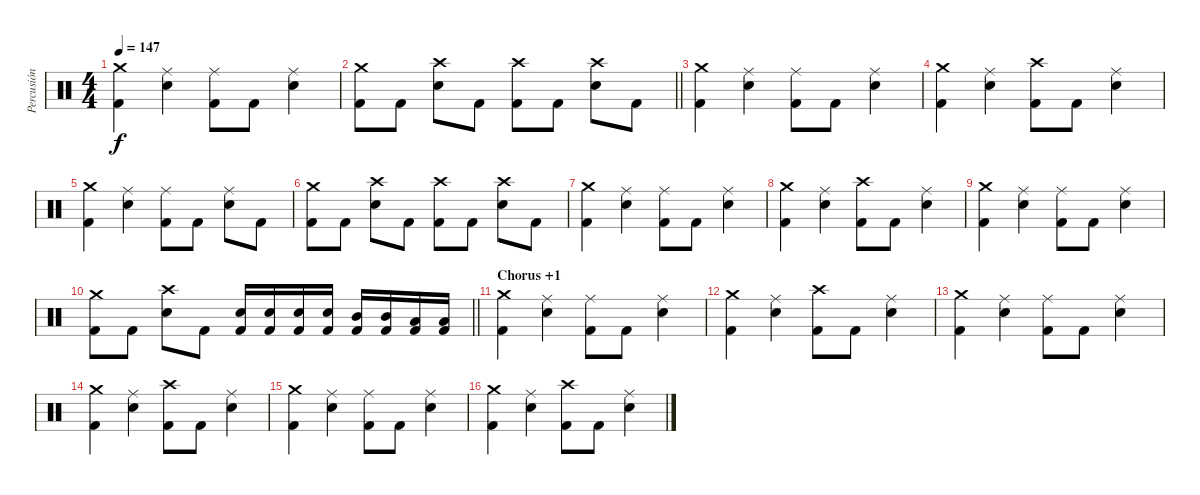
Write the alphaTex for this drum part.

\track ("Percusión" "Percusión") {instrument percussion}
\staff {score}
\articulation defaults
\ts (4 4)
\tempo 147
\clef neutral
\ks c
("Crash medium (hit)" "Kick (hit) 2").4{dy f} ("Ride (middle)" "Snare (hit) 2").4 ("Ride (middle)" "Kick (hit) 2").8 "Kick (hit) 2".8 ("Ride (middle)" "Snare (hit) 2").4 |
\barLineRight lightlight
("Crash medium (hit)" "Kick (hit) 2").8 "Kick (hit) 2".8 ("Crash high (hit)" "Snare (hit) 2").8 "Kick (hit) 2".8 ("Crash high (hit)" "Kick (hit) 2").8 "Kick (hit) 2".8 ("Crash high (hit)" "Snare (hit) 2").8 "Kick (hit) 2".8 |
("Crash medium (hit)" "Kick (hit) 2").4 ("Ride (middle)" "Snare (hit) 2").4 ("Ride (middle)" "Kick (hit) 2").8 "Kick (hit) 2".8 ("Ride (middle)" "Snare (hit) 2").4 |
("Crash medium (hit)" "Kick (hit) 2").4 ("Ride (middle)" "Snare (hit) 2").4 ("Crash high (hit)" "Kick (hit) 2").8 "Kick (hit) 2".8 ("Ride (middle)" "Snare (hit) 2").4 |
("Crash medium (hit)" "Kick (hit) 2").4 ("Ride (middle)" "Snare (hit) 2").4 ("Ride (middle)" "Kick (hit) 2").8 "Kick (hit) 2".8 ("Ride (middle)" "Snare (hit) 2").8 "Kick (hit) 2".8 |
("Crash medium (hit)" "Kick (hit) 2").8 "Kick (hit) 2".8 ("Crash high (hit)" "Snare (hit) 2").8 "Kick (hit) 2".8 ("Crash high (hit)" "Kick (hit) 2").8 "Kick (hit) 2".8 ("Crash high (hit)" "Snare (hit) 2").8 "Kick (hit) 2".8 |
("Crash medium (hit)" "Kick (hit) 2").4 ("Ride (middle)" "Snare (hit) 2").4 ("Ride (middle)" "Kick (hit) 2").8 "Kick (hit) 2".8 ("Ride (middle)" "Snare (hit) 2").4 |
("Crash medium (hit)" "Kick (hit) 2").4 ("Ride (middle)" "Snare (hit) 2").4 ("Crash high (hit)" "Kick (hit) 2").8 "Kick (hit) 2".8 ("Ride (middle)" "Snare (hit) 2").4 |
("Crash medium (hit)" "Kick (hit) 2").4 ("Ride (middle)" "Snare (hit) 2").4 ("Ride (middle)" "Kick (hit) 2").8 "Kick (hit) 2".8 ("Ride (middle)" "Snare (hit) 2").4 |
\barLineRight lightlight
("Crash medium (hit)" "Kick (hit) 2").8 "Kick (hit) 2".8 ("Crash high (hit)" "Snare (hit) 2").8 "Kick (hit) 2".8 ("Snare (hit) 2" "Kick (hit) 2").16 ("Snare (hit) 2" "Kick (hit) 2").16 ("Snare (hit) 2" "Kick (hit) 2").16 ("Snare (hit) 2" "Kick (hit) 2").16 ("Mid Tom (hit)" "Kick (hit) 2").16 ("Mid Tom (hit)" "Kick (hit) 2").16 ("Low Tom (hit)" "Kick (hit) 2").16 ("Low Tom (hit)" "Kick (hit) 2").16 |
\section ("" "Chorus +1")
("Crash medium (hit)" "Kick (hit) 2").4 ("Ride (middle)" "Snare (hit) 2").4 ("Ride (middle)" "Kick (hit) 2").8 "Kick (hit) 2".8 ("Ride (middle)" "Snare (hit) 2").4 |
("Crash medium (hit)" "Kick (hit) 2").4 ("Ride (middle)" "Snare (hit) 2").4 ("Crash high (hit)" "Kick (hit) 2").8 "Kick (hit) 2".8 ("Ride (middle)" "Snare (hit) 2").4 |
("Crash medium (hit)" "Kick (hit) 2").4 ("Ride (middle)" "Snare (hit) 2").4 ("Ride (middle)" "Kick (hit) 2").8 "Kick (hit) 2".8 ("Ride (middle)" "Snare (hit) 2").4 |
("Crash medium (hit)" "Kick (hit) 2").4 ("Ride (middle)" "Snare (hit) 2").4 ("Crash high (hit)" "Kick (hit) 2").8 "Kick (hit) 2".8 ("Ride (middle)" "Snare (hit) 2").4 |
("Crash medium (hit)" "Kick (hit) 2").4 ("Ride (middle)" "Snare (hit) 2").4 ("Ride (middle)" "Kick (hit) 2").8 "Kick (hit) 2".8 ("Ride (middle)" "Snare (hit) 2").4 |
("Crash medium (hit)" "Kick (hit) 2").4 ("Ride (middle)" "Snare (hit) 2").4 ("Crash high (hit)" "Kick (hit) 2").8 "Kick (hit) 2".8 ("Ride (middle)" "Snare (hit) 2").4
